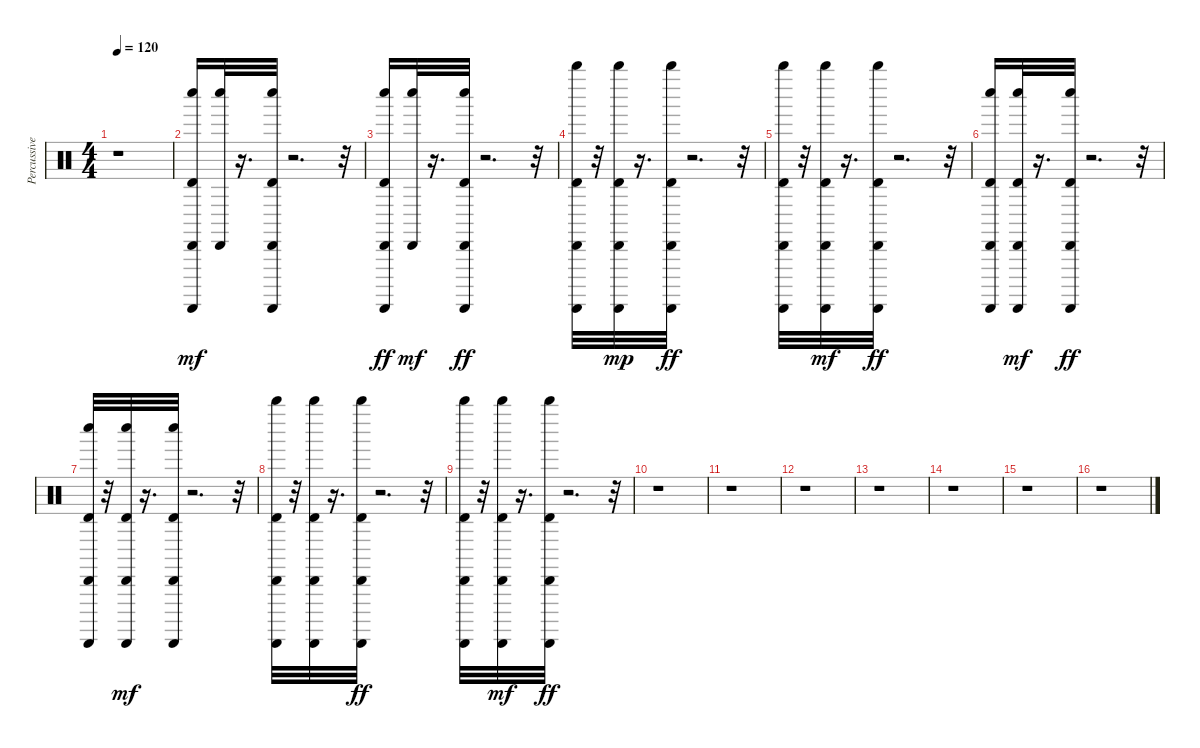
\track ("Percussive Organ" "Percussive") {instrument percussion}
\staff {score}
\articulation defaults
\ts (4 4)
\tempo 120
\clef neutral
\ks c
r.1{dy ff} |
("Whistle low (hit)" "Timbale high (hit)" "Guiro (scrap-return)" "Cabasa (hit)").16{dy mf} ("Whistle low (hit)" "Cabasa (hit)").32 r.16{d} ("Whistle low (hit)" "Guiro (scrap-return)" "Cabasa (hit)" "Timbale high (hit)").32 r.2{d} r.32 |
("Whistle low (hit)" "Cabasa (hit)" "Timbale high (hit)" "Guiro (scrap-return)").16{dy ff} ("Whistle low (hit)" "Cabasa (hit)").32{dy mf} r.16{d} ("Cabasa (hit)" "Whistle low (hit)" "Timbale high (hit)" "Guiro (scrap-return)").32{dy ff} r.2{d} r.32 |
("Whistle high (hit)" "Cabasa (hit)" "Timbale high (hit)" "Guiro (scrap-return)").32 r.32 ("Whistle high (hit)" "Cabasa (hit)" "Guiro (scrap-return)" "Timbale high (hit)").32{dy mp} r.16{d} ("Whistle high (hit)" "Cabasa (hit)" "Guiro (scrap-return)" "Timbale high (hit)").32{dy ff} r.2{d} r.32 |
("Whistle high (hit)" "Cabasa (hit)" "Timbale high (hit)" "Guiro (scrap-return)").32 r.32 ("Guiro (scrap-return)" "Timbale high (hit)" "Whistle high (hit)" "Cabasa (hit)").32{dy mf} r.16{d} ("Cabasa (hit)" "Whistle high (hit)" "Timbale high (hit)" "Guiro (scrap-return)").32{dy ff} r.2{d} r.32 |
("Timbale high (hit)" "Whistle low (hit)" "Cabasa (hit)" "Guiro (scrap-return)").16 ("Cabasa (hit)" "Whistle low (hit)" "Guiro (scrap-return)" "Timbale high (hit)").32{dy mf} r.16{d} ("Whistle low (hit)" "Timbale high (hit)" "Cabasa (hit)" "Guiro (scrap-return)").32{dy ff} r.2{d} r.32 |
("Whistle low (hit)" "Cabasa (hit)" "Timbale high (hit)" "Guiro (scrap-return)").32 r.32 ("Guiro (scrap-return)" "Timbale high (hit)" "Whistle low (hit)" "Cabasa (hit)").32{dy mf} r.16{d} ("Whistle low (hit)" "Cabasa (hit)" "Timbale high (hit)" "Guiro (scrap-return)").32 r.2{d} r.32 |
("Cabasa (hit)" "Whistle high (hit)" "Timbale high (hit)" "Guiro (scrap-return)").32 r.32 ("Guiro (scrap-return)" "Timbale high (hit)" "Whistle high (hit)" "Cabasa (hit)").32 r.16{d} ("Whistle high (hit)" "Cabasa (hit)" "Timbale high (hit)" "Guiro (scrap-return)").32{dy ff} r.2{d} r.32 |
("Whistle high (hit)" "Cabasa (hit)" "Timbale high (hit)" "Guiro (scrap-return)").32 r.32 ("Guiro (scrap-return)" "Timbale high (hit)" "Cabasa (hit)" "Whistle high (hit)").32{dy mf} r.16{d} ("Timbale high (hit)" "Cabasa (hit)" "Whistle high (hit)" "Guiro (scrap-return)").32{dy ff} r.2{d} r.32 |
r.1 |
r.1 |
r.1 |
r.1 |
r.1 |
r.1 |
r.1
